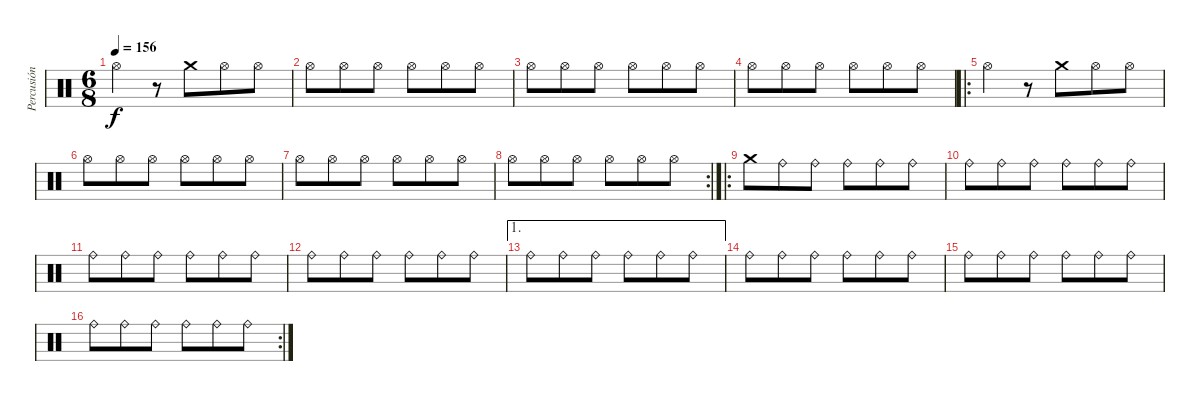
\track ("Percusión" "Percusión") {instrument percussion}
\staff {score}
\articulation defaults
\ts (6 8)
\tempo 156
\clef neutral
\ks c "Hi-Hat (open)".4{dy f}
r.8 "Crash medium (hit)".8 "Hi-Hat (open)".8 "Hi-Hat (open)".8 |
"Hi-Hat (open)".8 "Hi-Hat (open)".8 "Hi-Hat (open)".8 "Hi-Hat (open)".8 "Hi-Hat (open)".8 "Hi-Hat (open)".8 |
"Hi-Hat (open)".8 "Hi-Hat (open)".8 "Hi-Hat (open)".8 "Hi-Hat (open)".8 "Hi-Hat (open)".8 "Hi-Hat (open)".8 |
"Hi-Hat (open)".8 "Hi-Hat (open)".8 "Hi-Hat (open)".8 "Hi-Hat (open)".8 "Hi-Hat (open)".8 "Hi-Hat (open)".8 |
\ro "Hi-Hat (open)".4
r.8 "Crash medium (hit)".8 "Hi-Hat (open)".8 "Hi-Hat (open)".8 |
"Hi-Hat (open)".8 "Hi-Hat (open)".8 "Hi-Hat (open)".8 "Hi-Hat (open)".8 "Hi-Hat (open)".8 "Hi-Hat (open)".8 |
"Hi-Hat (open)".8 "Hi-Hat (open)".8 "Hi-Hat (open)".8 "Hi-Hat (open)".8 "Hi-Hat (open)".8 "Hi-Hat (open)".8 |
\rc 2 "Hi-Hat (open)".8 "Hi-Hat (open)".8 "Hi-Hat (open)".8 "Hi-Hat (open)".8 "Hi-Hat (open)".8 "Hi-Hat (open)".8
|
\ro "Crash medium (hit)".8 "Ride (bell)".8 "Ride (bell)".8 "Ride (bell)".8 "Ride (bell)".8 "Ride (bell)".8
|
"Ride (bell)".8 "Ride (bell)".8 "Ride (bell)".8 "Ride (bell)".8 "Ride (bell)".8 "Ride (bell)".8 |
"Ride (bell)".8 "Ride (bell)".8 "Ride (bell)".8 "Ride (bell)".8 "Ride (bell)".8 "Ride (bell)".8 |
"Ride (bell)".8 "Ride (bell)".8 "Ride (bell)".8 "Ride (bell)".8 "Ride (bell)".8 "Ride (bell)".8 |
\ae 1 "Ride (bell)".8 "Ride (bell)".8 "Ride (bell)".8 "Ride (bell)".8 "Ride (bell)".8 "Ride (bell)".8
|
"Ride (bell)".8 "Ride (bell)".8 "Ride (bell)".8 "Ride (bell)".8 "Ride (bell)".8 "Ride (bell)".8 |
"Ride (bell)".8 "Ride (bell)".8 "Ride (bell)".8 "Ride (bell)".8 "Ride (bell)".8 "Ride (bell)".8 |
\rc 2 "Ride (bell)".8 "Ride (bell)".8 "Ride (bell)".8 "Ride (bell)".8 "Ride (bell)".8 "Ride (bell)".8
